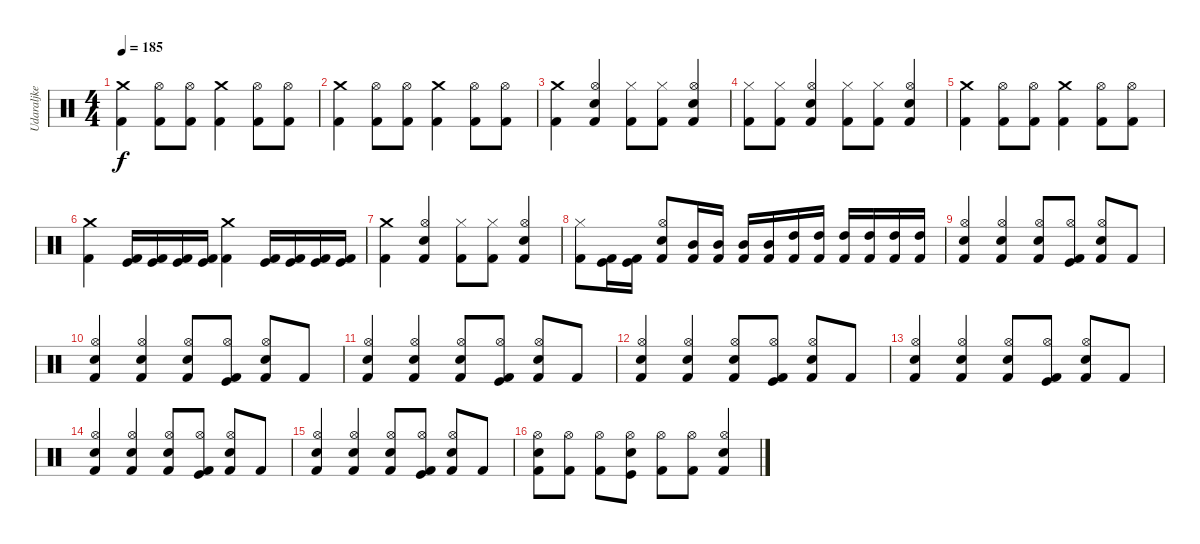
\track ("Udaraljke" "Udaraljke") {instrument percussion}
\staff {score}
\articulation defaults
\ts (4 4)
\tempo 185
\clef neutral
\ks c
("Kick (hit) 2" "Crash medium (hit)").4{dy f} ("Kick (hit) 2" "Hi-Hat (open)").8 ("Kick (hit) 2" "Hi-Hat (open)").8 ("Kick (hit) 2" "Crash medium (hit)").4 ("Kick (hit) 2" "Hi-Hat (open)").8 ("Kick (hit) 2" "Hi-Hat (open)").8 |
("Kick (hit) 2" "Crash medium (hit)").4 ("Kick (hit) 2" "Hi-Hat (open)").8 ("Kick (hit) 2" "Hi-Hat (open)").8 ("Kick (hit) 2" "Crash medium (hit)").4 ("Kick (hit) 2" "Hi-Hat (open)").8 ("Kick (hit) 2" "Hi-Hat (open)").8 |
("Kick (hit) 2" "Crash medium (hit)").4 ("Kick (hit) 2" "Electric Snare (hit)" "Hi-Hat (open)").4 ("Kick (hit) 2" "Hi-Hat (closed)").8 ("Kick (hit) 2" "Hi-Hat (closed)").8 ("Kick (hit) 2" "Electric Snare (hit)" "Hi-Hat (open)").4 |
("Kick (hit) 2" "Hi-Hat (closed)").8 ("Kick (hit) 2" "Hi-Hat (closed)").8 ("Kick (hit) 2" "Electric Snare (hit)" "Hi-Hat (open)").4 ("Kick (hit) 2" "Hi-Hat (closed)").8 ("Kick (hit) 2" "Hi-Hat (closed)").8 ("Kick (hit) 2" "Electric Snare (hit)" "Hi-Hat (open)").4 |
("Kick (hit) 2" "Crash medium (hit)").4 ("Kick (hit) 2" "Hi-Hat (open)").8 ("Kick (hit) 2" "Hi-Hat (open)").8 ("Kick (hit) 2" "Crash medium (hit)").4 ("Kick (hit) 2" "Hi-Hat (open)").8 ("Kick (hit) 2" "Hi-Hat (open)").8 |
("Kick (hit) 2" "Crash medium (hit)").4 ("Kick (hit) 2" "Kick (hit)").16 ("Kick (hit) 2" "Kick (hit)").16 ("Kick (hit) 2" "Kick (hit)").16 ("Kick (hit) 2" "Kick (hit)").16 ("Kick (hit) 2" "Crash medium (hit)").4 ("Kick (hit) 2" "Kick (hit)").16 ("Kick (hit) 2" "Kick (hit)").16 ("Kick (hit) 2" "Kick (hit)").16 ("Kick (hit) 2" "Kick (hit)").16 |
("Kick (hit) 2" "Crash medium (hit)").4 ("Kick (hit) 2" "Electric Snare (hit)" "Hi-Hat (open)").4 ("Kick (hit) 2" "Hi-Hat (closed)").8 ("Kick (hit) 2" "Hi-Hat (closed)").8 ("Kick (hit) 2" "Electric Snare (hit)" "Hi-Hat (open)").4 |
("Kick (hit) 2" "Hi-Hat (closed)").8 ("Kick (hit) 2" "Kick (hit)").16 ("Kick (hit) 2" "Kick (hit)").16 ("Kick (hit) 2" "Electric Snare (hit)" "Hi-Hat (open)").8 ("Kick (hit) 2" "Mid Tom (hit)").16 ("Kick (hit) 2" "Mid Tom (hit)").16 ("Kick (hit) 2" "Mid Tom (hit)").16 ("Kick (hit) 2" "Mid Tom (hit)").16 ("Kick (hit) 2" "High Tom (hit)").16 ("Kick (hit) 2" "High Tom (hit)").16 ("Kick (hit) 2" "High Tom (hit)").16 ("Kick (hit) 2" "High Tom (hit)").16 ("Kick (hit) 2" "High Tom (hit)").16 ("Kick (hit) 2" "High Tom (hit)").16 |
("Hi-Hat (open)" "Electric Snare (hit)" "Kick (hit) 2").4 ("Hi-Hat (open)" "Electric Snare (hit)" "Kick (hit) 2").4 ("Hi-Hat (open)" "Electric Snare (hit)" "Kick (hit) 2").8 ("Hi-Hat (open)" "Kick (hit)" "Kick (hit) 2").8 ("Hi-Hat (open)" "Electric Snare (hit)" "Kick (hit) 2").8 "Kick (hit) 2".8 |
("Hi-Hat (open)" "Electric Snare (hit)" "Kick (hit) 2").4 ("Hi-Hat (open)" "Electric Snare (hit)" "Kick (hit) 2").4 ("Hi-Hat (open)" "Electric Snare (hit)" "Kick (hit) 2").8 ("Hi-Hat (open)" "Kick (hit)" "Kick (hit) 2").8 ("Hi-Hat (open)" "Electric Snare (hit)" "Kick (hit) 2").8 "Kick (hit) 2".8 |
("Hi-Hat (open)" "Electric Snare (hit)" "Kick (hit) 2").4 ("Hi-Hat (open)" "Electric Snare (hit)" "Kick (hit) 2").4 ("Hi-Hat (open)" "Electric Snare (hit)" "Kick (hit) 2").8 ("Hi-Hat (open)" "Kick (hit)" "Kick (hit) 2").8 ("Hi-Hat (open)" "Electric Snare (hit)" "Kick (hit) 2").8 "Kick (hit) 2".8 |
("Hi-Hat (open)" "Electric Snare (hit)" "Kick (hit) 2").4 ("Hi-Hat (open)" "Electric Snare (hit)" "Kick (hit) 2").4 ("Hi-Hat (open)" "Electric Snare (hit)" "Kick (hit) 2").8 ("Hi-Hat (open)" "Kick (hit)" "Kick (hit) 2").8 ("Hi-Hat (open)" "Electric Snare (hit)" "Kick (hit) 2").8 "Kick (hit) 2".8 |
("Hi-Hat (open)" "Electric Snare (hit)" "Kick (hit) 2").4 ("Hi-Hat (open)" "Electric Snare (hit)" "Kick (hit) 2").4 ("Hi-Hat (open)" "Electric Snare (hit)" "Kick (hit) 2").8 ("Hi-Hat (open)" "Kick (hit)" "Kick (hit) 2").8 ("Hi-Hat (open)" "Electric Snare (hit)" "Kick (hit) 2").8 "Kick (hit) 2".8 |
("Hi-Hat (open)" "Electric Snare (hit)" "Kick (hit) 2").4 ("Hi-Hat (open)" "Electric Snare (hit)" "Kick (hit) 2").4 ("Hi-Hat (open)" "Electric Snare (hit)" "Kick (hit) 2").8 ("Hi-Hat (open)" "Kick (hit)" "Kick (hit) 2").8 ("Hi-Hat (open)" "Electric Snare (hit)" "Kick (hit) 2").8 "Kick (hit) 2".8 |
("Hi-Hat (open)" "Electric Snare (hit)" "Kick (hit) 2").4 ("Hi-Hat (open)" "Electric Snare (hit)" "Kick (hit) 2").4 ("Hi-Hat (open)" "Electric Snare (hit)" "Kick (hit) 2").8 ("Hi-Hat (open)" "Kick (hit)" "Kick (hit) 2").8 ("Hi-Hat (open)" "Electric Snare (hit)" "Kick (hit) 2").8 "Kick (hit) 2".8 |
("Hi-Hat (open)" "Electric Snare (hit)" "Kick (hit) 2").8 ("Hi-Hat (open)" "Kick (hit) 2").8 ("Hi-Hat (open)" "Kick (hit) 2").8 ("Hi-Hat (open)" "Electric Snare (hit)" "Kick (hit)").8 ("Hi-Hat (open)" "Kick (hit) 2").8 ("Hi-Hat (open)" "Kick (hit) 2").8 ("Hi-Hat (open)" "Electric Snare (hit)" "Kick (hit) 2").4
